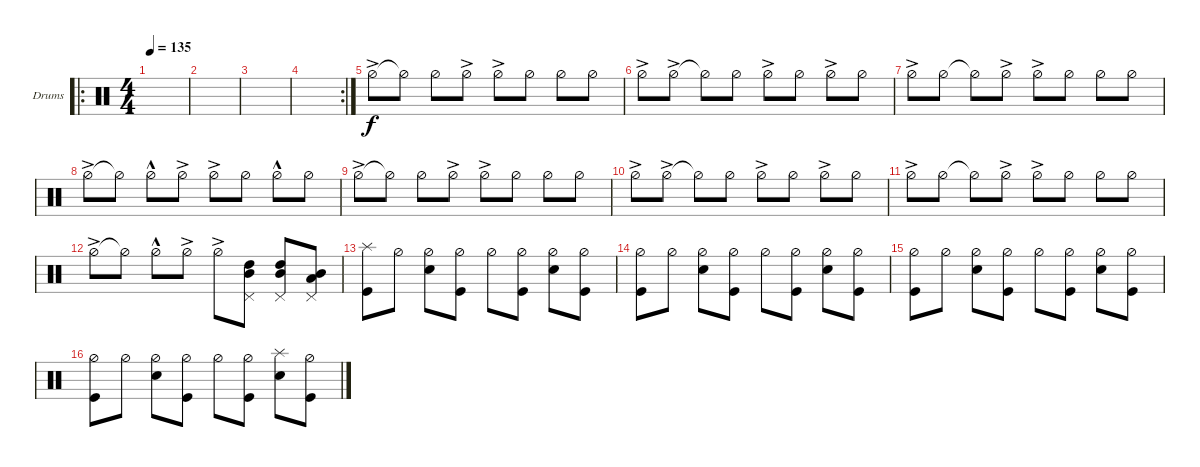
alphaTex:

\defaultSystemsLayout 4
\bracketExtendMode groupsimilarinstruments
\firstSystemTrackNameOrientation horizontal
\otherSystemsTrackNameOrientation horizontal
\track ("Drumkit" "Drums") {instrument percussion}
\staff {score}
\articulation defaults
\ro
\ts (4 4)
\tempo 135
\clef neutral
\ks c
|
|
|
\rc 2
|
"Hi-Hat (half)"{ac}.8 "Hi-Hat (half)"{t}.8 "Hi-Hat (half)".8 "Hi-Hat (half)"{ac}.8 "Hi-Hat (half)"{ac}.8 "Hi-Hat (half)".8 "Hi-Hat (half)".8 "Hi-Hat (half)".8 |
"Hi-Hat (half)"{ac}.8 "Hi-Hat (half)"{ac}.8 "Hi-Hat (half)"{t}.8 "Hi-Hat (half)".8 "Hi-Hat (half)"{ac}.8 "Hi-Hat (half)".8 "Hi-Hat (half)"{ac}.8 "Hi-Hat (half)".8 |
"Hi-Hat (half)"{ac}.8 "Hi-Hat (half)".8 "Hi-Hat (half)"{t}.8 "Hi-Hat (half)"{ac}.8 "Hi-Hat (half)"{ac}.8 "Hi-Hat (half)".8 "Hi-Hat (half)".8 "Hi-Hat (half)".8 |
"Hi-Hat (half)"{ac}.8 "Hi-Hat (half)"{t}.8 "Hi-Hat (half)"{hac}.8 "Hi-Hat (half)"{ac}.8 "Hi-Hat (half)"{ac}.8 "Hi-Hat (half)".8 "Hi-Hat (half)"{hac}.8 "Hi-Hat (half)".8 |
"Hi-Hat (half)"{ac}.8 "Hi-Hat (half)"{t}.8 "Hi-Hat (half)".8 "Hi-Hat (half)"{ac}.8 "Hi-Hat (half)"{ac}.8 "Hi-Hat (half)".8 "Hi-Hat (half)".8 "Hi-Hat (half)".8 |
"Hi-Hat (half)"{ac}.8 "Hi-Hat (half)"{ac}.8 "Hi-Hat (half)"{t}.8 "Hi-Hat (half)".8 "Hi-Hat (half)"{ac}.8 "Hi-Hat (half)".8 "Hi-Hat (half)"{ac}.8 "Hi-Hat (half)".8 |
"Hi-Hat (half)"{ac}.8 "Hi-Hat (half)".8 "Hi-Hat (half)"{t}.8 "Hi-Hat (half)"{ac}.8 "Hi-Hat (half)"{ac}.8 "Hi-Hat (half)".8 "Hi-Hat (half)".8 "Hi-Hat (half)".8 |
"Hi-Hat (half)"{ac}.8 "Hi-Hat (half)"{t}.8 "Hi-Hat (half)"{hac}.8 "Hi-Hat (half)"{ac}.8 "Hi-Hat (half)"{ac}.8 ("Mid Tom (hit)" "High Tom (hit)" "Pedal Hi-Hat (hit)").8 ("High Tom (hit)" "Mid Tom (hit)" "Pedal Hi-Hat (hit)").8 ("Mid Tom (hit)" "Low Tom (hit)" "Pedal Hi-Hat (hit)").8 |
("Kick (hit)" "Splash (hit)").8 "Hi-Hat (half)".8 ("Snare (hit) 2" "Hi-Hat (half)").8 ("Kick (hit)" "Hi-Hat (half)").8 "Hi-Hat (half)".8 ("Kick (hit)" "Hi-Hat (half)").8 ("Snare (hit) 2" "Hi-Hat (half)").8 ("Kick (hit)" "Hi-Hat (half)").8 |
("Kick (hit)" "Hi-Hat (half)").8 "Hi-Hat (half)".8 ("Snare (hit) 2" "Hi-Hat (half)").8 ("Kick (hit)" "Hi-Hat (half)").8 "Hi-Hat (half)".8 ("Kick (hit)" "Hi-Hat (half)").8 ("Snare (hit) 2" "Hi-Hat (half)").8 ("Kick (hit)" "Hi-Hat (half)").8 |
("Kick (hit)" "Hi-Hat (half)").8 "Hi-Hat (half)".8 ("Snare (hit) 2" "Hi-Hat (half)").8 ("Kick (hit)" "Hi-Hat (half)").8 "Hi-Hat (half)".8 ("Kick (hit)" "Hi-Hat (half)").8 ("Snare (hit) 2" "Hi-Hat (half)").8 ("Kick (hit)" "Hi-Hat (half)").8 |
("Kick (hit)" "Hi-Hat (half)").8 "Hi-Hat (half)".8 ("Snare (hit) 2" "Hi-Hat (half)").8 ("Kick (hit)" "Hi-Hat (half)").8 "Hi-Hat (half)".8 ("Kick (hit)" "Hi-Hat (half)").8 ("Snare (hit) 2" "Splash (hit)").8 ("Kick (hit)" "Hi-Hat (half)").8
